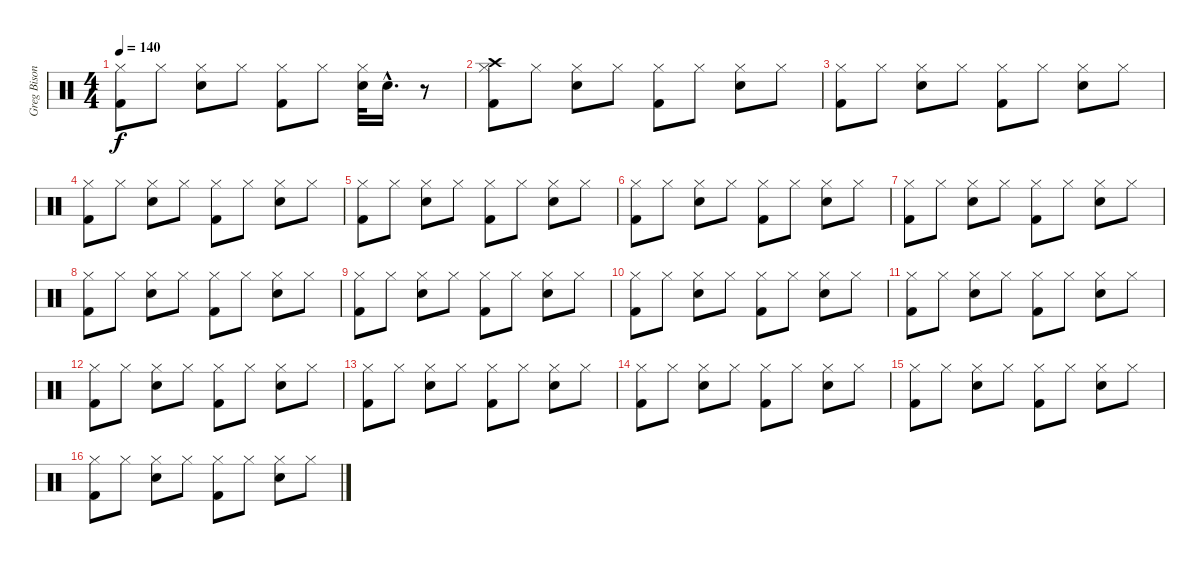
\track ("Greg Bisonette" "Greg Bison") {instrument percussion}
\staff {score}
\articulation defaults
\ts (4 4)
\tempo 140
\clef neutral
\ks c
("Hi-Hat (closed)" "Kick (hit) 2").8{dy f} "Hi-Hat (closed)".8 ("Hi-Hat (closed)" "Electric Snare (hit)").8 "Hi-Hat (closed)".8 ("Hi-Hat (closed)" "Kick (hit) 2").8 "Hi-Hat (closed)".8 ("Hi-Hat (closed)" "Electric Snare (hit)").32 "Electric Snare (hit)"{hac}.16{d} r.8 |
("Crash high (hit)" "Hi-Hat (closed)" "Kick (hit) 2").8 "Hi-Hat (closed)".8 ("Hi-Hat (closed)" "Electric Snare (hit)").8 "Hi-Hat (closed)".8 ("Hi-Hat (closed)" "Kick (hit) 2").8 "Hi-Hat (closed)".8 ("Hi-Hat (closed)" "Electric Snare (hit)").8 "Hi-Hat (closed)".8 |
("Hi-Hat (closed)" "Kick (hit) 2").8 "Hi-Hat (closed)".8 ("Hi-Hat (closed)" "Electric Snare (hit)").8 "Hi-Hat (closed)".8 ("Hi-Hat (closed)" "Kick (hit) 2").8 "Hi-Hat (closed)".8 ("Hi-Hat (closed)" "Electric Snare (hit)").8 "Hi-Hat (closed)".8 |
("Hi-Hat (closed)" "Kick (hit) 2").8 "Hi-Hat (closed)".8 ("Hi-Hat (closed)" "Electric Snare (hit)").8 "Hi-Hat (closed)".8 ("Hi-Hat (closed)" "Kick (hit) 2").8 "Hi-Hat (closed)".8 ("Hi-Hat (closed)" "Electric Snare (hit)").8 "Hi-Hat (closed)".8 |
("Hi-Hat (closed)" "Kick (hit) 2").8 "Hi-Hat (closed)".8 ("Hi-Hat (closed)" "Electric Snare (hit)").8 "Hi-Hat (closed)".8 ("Hi-Hat (closed)" "Kick (hit) 2").8 "Hi-Hat (closed)".8 ("Hi-Hat (closed)" "Electric Snare (hit)").8 "Hi-Hat (closed)".8 |
("Hi-Hat (closed)" "Kick (hit) 2").8 "Hi-Hat (closed)".8 ("Hi-Hat (closed)" "Electric Snare (hit)").8 "Hi-Hat (closed)".8 ("Hi-Hat (closed)" "Kick (hit) 2").8 "Hi-Hat (closed)".8 ("Hi-Hat (closed)" "Electric Snare (hit)").8 "Hi-Hat (closed)".8 |
("Hi-Hat (closed)" "Kick (hit) 2").8 "Hi-Hat (closed)".8 ("Hi-Hat (closed)" "Electric Snare (hit)").8 "Hi-Hat (closed)".8 ("Hi-Hat (closed)" "Kick (hit) 2").8 "Hi-Hat (closed)".8 ("Hi-Hat (closed)" "Electric Snare (hit)").8 "Hi-Hat (closed)".8 |
("Hi-Hat (closed)" "Kick (hit) 2").8 "Hi-Hat (closed)".8 ("Hi-Hat (closed)" "Electric Snare (hit)").8 "Hi-Hat (closed)".8 ("Hi-Hat (closed)" "Kick (hit) 2").8 "Hi-Hat (closed)".8 ("Hi-Hat (closed)" "Electric Snare (hit)").8 "Hi-Hat (closed)".8 |
("Hi-Hat (closed)" "Kick (hit) 2").8 "Hi-Hat (closed)".8 ("Hi-Hat (closed)" "Electric Snare (hit)").8 "Hi-Hat (closed)".8 ("Hi-Hat (closed)" "Kick (hit) 2").8 "Hi-Hat (closed)".8 ("Hi-Hat (closed)" "Electric Snare (hit)").8 "Hi-Hat (closed)".8 |
("Hi-Hat (closed)" "Kick (hit) 2").8 "Hi-Hat (closed)".8 ("Hi-Hat (closed)" "Electric Snare (hit)").8 "Hi-Hat (closed)".8 ("Hi-Hat (closed)" "Kick (hit) 2").8 "Hi-Hat (closed)".8 ("Hi-Hat (closed)" "Electric Snare (hit)").8 "Hi-Hat (closed)".8 |
("Hi-Hat (closed)" "Kick (hit) 2").8 "Hi-Hat (closed)".8 ("Hi-Hat (closed)" "Electric Snare (hit)").8 "Hi-Hat (closed)".8 ("Hi-Hat (closed)" "Kick (hit) 2").8 "Hi-Hat (closed)".8 ("Hi-Hat (closed)" "Electric Snare (hit)").8 "Hi-Hat (closed)".8 |
("Hi-Hat (closed)" "Kick (hit) 2").8 "Hi-Hat (closed)".8 ("Hi-Hat (closed)" "Electric Snare (hit)").8 "Hi-Hat (closed)".8 ("Hi-Hat (closed)" "Kick (hit) 2").8 "Hi-Hat (closed)".8 ("Hi-Hat (closed)" "Electric Snare (hit)").8 "Hi-Hat (closed)".8 |
("Hi-Hat (closed)" "Kick (hit) 2").8 "Hi-Hat (closed)".8 ("Hi-Hat (closed)" "Electric Snare (hit)").8 "Hi-Hat (closed)".8 ("Hi-Hat (closed)" "Kick (hit) 2").8 "Hi-Hat (closed)".8 ("Hi-Hat (closed)" "Electric Snare (hit)").8 "Hi-Hat (closed)".8 |
("Hi-Hat (closed)" "Kick (hit) 2").8 "Hi-Hat (closed)".8 ("Hi-Hat (closed)" "Electric Snare (hit)").8 "Hi-Hat (closed)".8 ("Hi-Hat (closed)" "Kick (hit) 2").8 "Hi-Hat (closed)".8 ("Hi-Hat (closed)" "Electric Snare (hit)").8 "Hi-Hat (closed)".8 |
("Hi-Hat (closed)" "Kick (hit) 2").8 "Hi-Hat (closed)".8 ("Hi-Hat (closed)" "Electric Snare (hit)").8 "Hi-Hat (closed)".8 ("Hi-Hat (closed)" "Kick (hit) 2").8 "Hi-Hat (closed)".8 ("Hi-Hat (closed)" "Electric Snare (hit)").8 "Hi-Hat (closed)".8 |
("Hi-Hat (closed)" "Kick (hit) 2").8 "Hi-Hat (closed)".8 ("Hi-Hat (closed)" "Electric Snare (hit)").8 "Hi-Hat (closed)".8 ("Hi-Hat (closed)" "Kick (hit) 2").8 "Hi-Hat (closed)".8 ("Hi-Hat (closed)" "Electric Snare (hit)").8 "Hi-Hat (closed)".8
